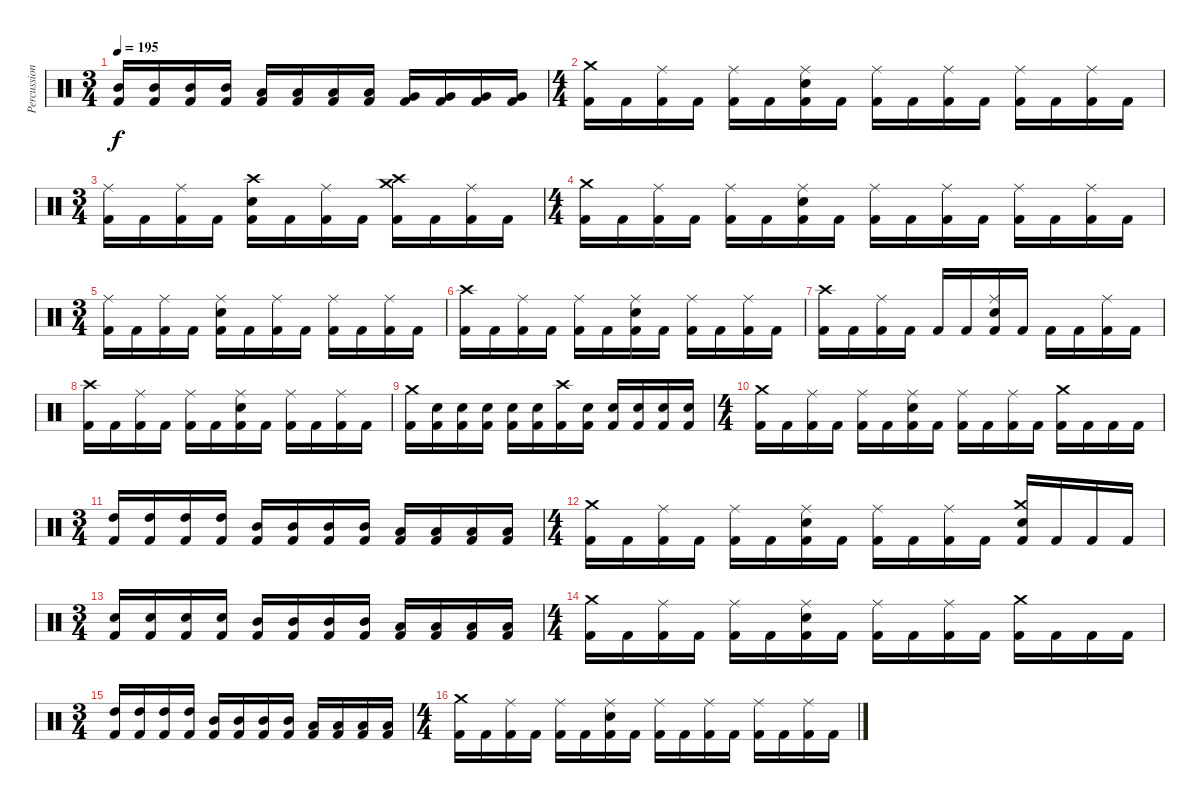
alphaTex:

\track ("Percussion" "Percussion") {instrument percussion}
\staff {score}
\articulation defaults
\ts (3 4)
\tempo 195
\clef neutral
\ks c
("Mid Tom (hit)" "Kick (hit) 2").16{dy f} ("Mid Tom (hit)" "Kick (hit) 2").16 ("Mid Tom (hit)" "Kick (hit) 2").16 ("Mid Tom (hit)" "Kick (hit) 2").16 ("Low Tom (hit)" "Kick (hit) 2").16 ("Low Tom (hit)" "Kick (hit) 2").16 ("Low Tom (hit)" "Kick (hit) 2").16 ("Low Tom (hit)" "Kick (hit) 2").16 ("Very Low Tom (hit)" "Kick (hit) 2").16 ("Very Low Tom (hit)" "Kick (hit) 2").16 ("Very Low Tom (hit)" "Kick (hit) 2").16 ("Very Low Tom (hit)" "Kick (hit) 2").16 |
\ts (4 4)
("Crash medium (hit)" "Kick (hit) 2").16 "Kick (hit) 2".16 ("Ride (middle)" "Kick (hit) 2").16 "Kick (hit) 2".16 ("Ride (middle)" "Kick (hit) 2").16 "Kick (hit) 2".16 ("Ride (middle)" "Electric Snare (hit)" "Kick (hit) 2").16 "Kick (hit) 2".16 ("Ride (middle)" "Kick (hit) 2").16 "Kick (hit) 2".16 ("Ride (middle)" "Kick (hit) 2").16 "Kick (hit) 2".16 ("Ride (middle)" "Kick (hit) 2").16 "Kick (hit) 2".16 ("Ride (middle)" "Kick (hit) 2").16 "Kick (hit) 2".16 |
\ts (3 4)
("Ride (middle)" "Kick (hit) 2").16 "Kick (hit) 2".16 ("Ride (middle)" "Kick (hit) 2").16 "Kick (hit) 2".16 ("Crash high (hit)" "Electric Snare (hit)" "Kick (hit) 2").16 "Kick (hit) 2".16 ("Ride (middle)" "Kick (hit) 2").16 "Kick (hit) 2".16 ("Crash high (hit)" "Crash medium (hit)" "Kick (hit) 2").16 "Kick (hit) 2".16 ("Ride (middle)" "Kick (hit) 2").16 "Kick (hit) 2".16 |
\ts (4 4)
("Crash medium (hit)" "Kick (hit) 2").16 "Kick (hit) 2".16 ("Ride (middle)" "Kick (hit) 2").16 "Kick (hit) 2".16 ("Ride (middle)" "Kick (hit) 2").16 "Kick (hit) 2".16 ("Ride (middle)" "Electric Snare (hit)" "Kick (hit) 2").16 "Kick (hit) 2".16 ("Ride (middle)" "Kick (hit) 2").16 "Kick (hit) 2".16 ("Ride (middle)" "Kick (hit) 2").16 "Kick (hit) 2".16 ("Ride (middle)" "Kick (hit) 2").16 "Kick (hit) 2".16 ("Ride (middle)" "Kick (hit) 2").16 "Kick (hit) 2".16 |
\ts (3 4)
("Ride (middle)" "Kick (hit) 2").16 "Kick (hit) 2".16 ("Ride (middle)" "Kick (hit) 2").16 "Kick (hit) 2".16 ("Ride (middle)" "Electric Snare (hit)" "Kick (hit) 2").16 "Kick (hit) 2".16 ("Ride (middle)" "Kick (hit) 2").16 "Kick (hit) 2".16 ("Ride (middle)" "Kick (hit) 2").16 "Kick (hit) 2".16 ("Ride (middle)" "Kick (hit) 2").16 "Kick (hit) 2".16 |
("Crash high (hit)" "Kick (hit) 2").16 "Kick (hit) 2".16 ("Ride (middle)" "Kick (hit) 2").16 "Kick (hit) 2".16 ("Ride (middle)" "Kick (hit) 2").16 "Kick (hit) 2".16 ("Ride (middle)" "Electric Snare (hit)" "Kick (hit) 2").16 "Kick (hit) 2".16 ("Ride (middle)" "Kick (hit) 2").16 "Kick (hit) 2".16 ("Ride (middle)" "Kick (hit) 2").16 "Kick (hit) 2".16 |
("Crash high (hit)" "Kick (hit) 2").16 "Kick (hit) 2".16 ("Ride (middle)" "Kick (hit) 2").16 "Kick (hit) 2".16 "Kick (hit) 2".16 "Kick (hit) 2".16 ("Ride (middle)" "Electric Snare (hit)" "Kick (hit) 2").16 "Kick (hit) 2".16 "Kick (hit) 2".16 "Kick (hit) 2".16 ("Ride (middle)" "Kick (hit) 2").16 "Kick (hit) 2".16 |
("Crash high (hit)" "Kick (hit) 2").16 "Kick (hit) 2".16 ("Ride (middle)" "Kick (hit) 2").16 "Kick (hit) 2".16 ("Ride (middle)" "Kick (hit) 2").16 "Kick (hit) 2".16 ("Ride (middle)" "Electric Snare (hit)" "Kick (hit) 2").16 "Kick (hit) 2".16 ("Ride (middle)" "Kick (hit) 2").16 "Kick (hit) 2".16 ("Ride (middle)" "Kick (hit) 2").16 "Kick (hit) 2".16 |
("Crash medium (hit)" "Kick (hit) 2").16 ("Electric Snare (hit)" "Kick (hit) 2").16 ("Electric Snare (hit)" "Kick (hit) 2").16 ("Electric Snare (hit)" "Kick (hit) 2").16 ("Electric Snare (hit)" "Kick (hit) 2").16 ("Electric Snare (hit)" "Kick (hit) 2").16 ("Crash high (hit)" "Kick (hit) 2").16 ("Electric Snare (hit)" "Kick (hit) 2").16 ("Electric Snare (hit)" "Kick (hit) 2").16 ("Electric Snare (hit)" "Kick (hit) 2").16 ("Electric Snare (hit)" "Kick (hit) 2").16 ("Electric Snare (hit)" "Kick (hit) 2").16 |
\ts (4 4)
("Crash medium (hit)" "Kick (hit) 2").16 "Kick (hit) 2".16 ("Ride (middle)" "Kick (hit) 2").16 "Kick (hit) 2".16 ("Ride (middle)" "Kick (hit) 2").16 "Kick (hit) 2".16 ("Ride (middle)" "Electric Snare (hit)" "Kick (hit) 2").16 "Kick (hit) 2".16 ("Ride (middle)" "Kick (hit) 2").16 "Kick (hit) 2".16 ("Ride (middle)" "Kick (hit) 2").16 "Kick (hit) 2".16 ("Crash medium (hit)" "Kick (hit) 2").16 "Kick (hit) 2".16 "Kick (hit) 2".16 "Kick (hit) 2".16 |
\ts (3 4)
("High Tom (hit)" "Kick (hit) 2").16 ("High Tom (hit)" "Kick (hit) 2").16 ("High Tom (hit)" "Kick (hit) 2").16 ("High Tom (hit)" "Kick (hit) 2").16 ("Mid Tom (hit)" "Kick (hit) 2").16 ("Mid Tom (hit)" "Kick (hit) 2").16 ("Mid Tom (hit)" "Kick (hit) 2").16 ("Mid Tom (hit)" "Kick (hit) 2").16 ("Low Tom (hit)" "Kick (hit) 2").16 ("Low Tom (hit)" "Kick (hit) 2").16 ("Low Tom (hit)" "Kick (hit) 2").16 ("Low Tom (hit)" "Kick (hit) 2").16 |
\ts (4 4)
("Crash medium (hit)" "Kick (hit) 2").16 "Kick (hit) 2".16 ("Ride (middle)" "Kick (hit) 2").16 "Kick (hit) 2".16 ("Ride (middle)" "Kick (hit) 2").16 "Kick (hit) 2".16 ("Ride (middle)" "Electric Snare (hit)" "Kick (hit) 2").16 "Kick (hit) 2".16 ("Ride (middle)" "Kick (hit) 2").16 "Kick (hit) 2".16 ("Ride (middle)" "Kick (hit) 2").16 "Kick (hit) 2".16 ("Crash medium (hit)" "Electric Snare (hit)" "Kick (hit) 2").16 "Kick (hit) 2".16 "Kick (hit) 2".16 "Kick (hit) 2".16 |
\ts (3 4)
("Electric Snare (hit)" "Kick (hit) 2").16 ("Electric Snare (hit)" "Kick (hit) 2").16 ("Electric Snare (hit)" "Kick (hit) 2").16 ("Electric Snare (hit)" "Kick (hit) 2").16 ("Mid Tom (hit)" "Kick (hit) 2").16 ("Mid Tom (hit)" "Kick (hit) 2").16 ("Mid Tom (hit)" "Kick (hit) 2").16 ("Mid Tom (hit)" "Kick (hit) 2").16 ("Low Tom (hit)" "Kick (hit) 2").16 ("Low Tom (hit)" "Kick (hit) 2").16 ("Low Tom (hit)" "Kick (hit) 2").16 ("Low Tom (hit)" "Kick (hit) 2").16 |
\ts (4 4)
("Crash medium (hit)" "Kick (hit) 2").16 "Kick (hit) 2".16 ("Ride (middle)" "Kick (hit) 2").16 "Kick (hit) 2".16 ("Ride (middle)" "Kick (hit) 2").16 "Kick (hit) 2".16 ("Ride (middle)" "Electric Snare (hit)" "Kick (hit) 2").16 "Kick (hit) 2".16 ("Ride (middle)" "Kick (hit) 2").16 "Kick (hit) 2".16 ("Ride (middle)" "Kick (hit) 2").16 "Kick (hit) 2".16 ("Crash medium (hit)" "Kick (hit) 2").16 "Kick (hit) 2".16 "Kick (hit) 2".16 "Kick (hit) 2".16 |
\ts (3 4)
("High Tom (hit)" "Kick (hit) 2").16 ("High Tom (hit)" "Kick (hit) 2").16 ("High Tom (hit)" "Kick (hit) 2").16 ("High Tom (hit)" "Kick (hit) 2").16 ("Mid Tom (hit)" "Kick (hit) 2").16 ("Mid Tom (hit)" "Kick (hit) 2").16 ("Mid Tom (hit)" "Kick (hit) 2").16 ("Mid Tom (hit)" "Kick (hit) 2").16 ("Low Tom (hit)" "Kick (hit) 2").16 ("Low Tom (hit)" "Kick (hit) 2").16 ("Low Tom (hit)" "Kick (hit) 2").16 ("Low Tom (hit)" "Kick (hit) 2").16 |
\ts (4 4)
("Crash medium (hit)" "Kick (hit) 2").16 "Kick (hit) 2".16 ("Ride (middle)" "Kick (hit) 2").16 "Kick (hit) 2".16 ("Ride (middle)" "Kick (hit) 2").16 "Kick (hit) 2".16 ("Ride (middle)" "Electric Snare (hit)" "Kick (hit) 2").16 "Kick (hit) 2".16 ("Ride (middle)" "Kick (hit) 2").16 "Kick (hit) 2".16 ("Ride (middle)" "Kick (hit) 2").16 "Kick (hit) 2".16 ("Ride (middle)" "Kick (hit) 2").16 "Kick (hit) 2".16 ("Ride (middle)" "Kick (hit) 2").16 "Kick (hit) 2".16
